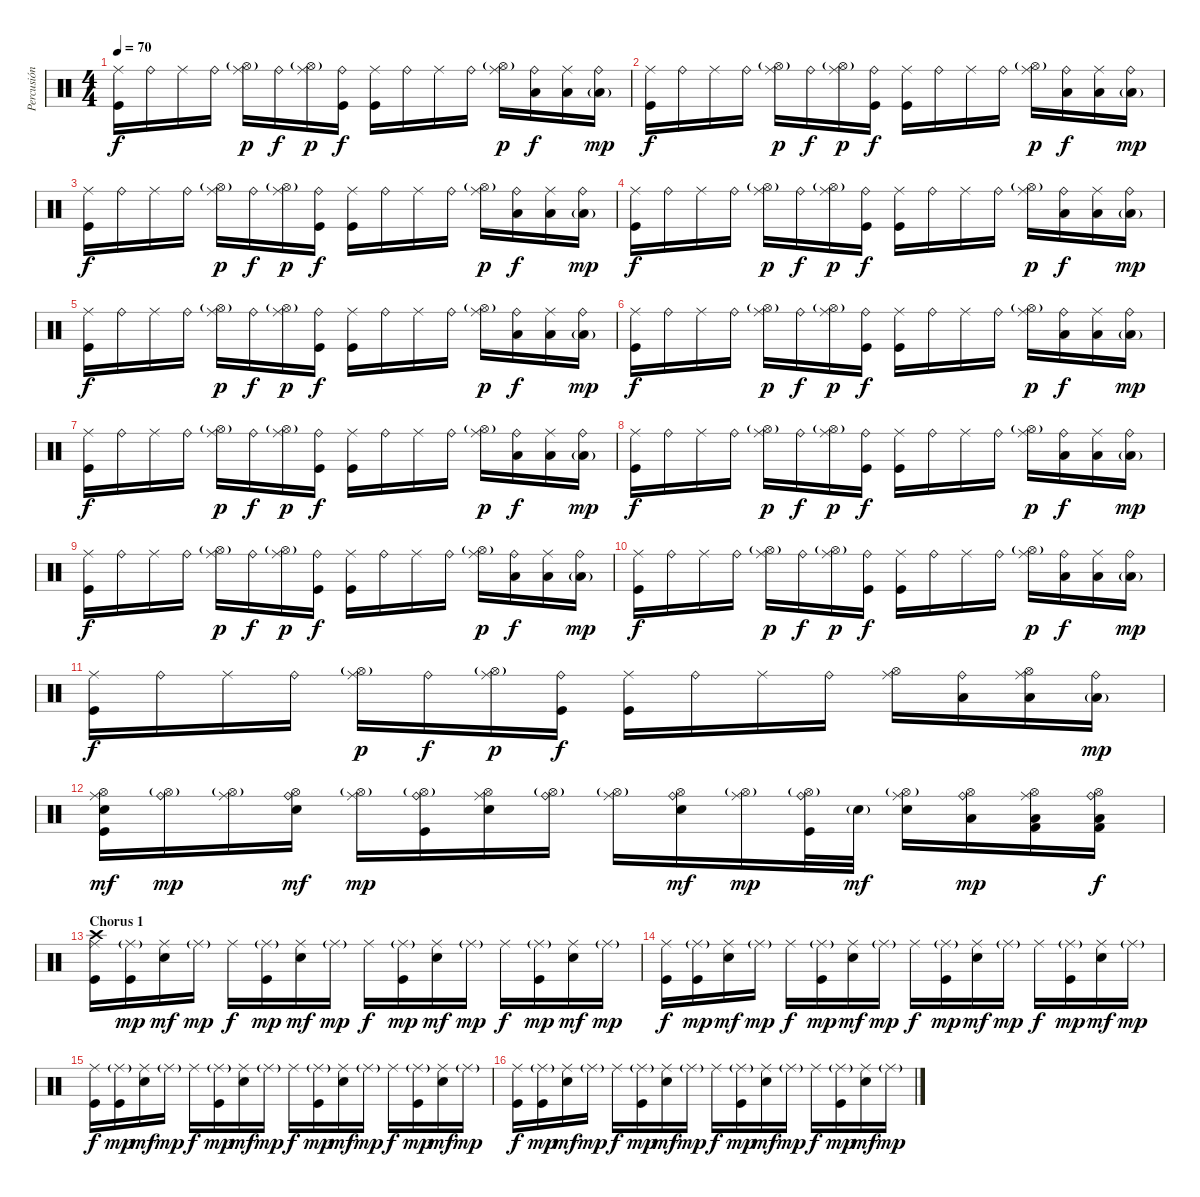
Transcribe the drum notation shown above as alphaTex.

\track ("Percusión" "Percusión") {instrument percussion}
\staff {score}
\articulation defaults
\ts (4 4)
\tempo 70
\clef neutral
\ks c
("Ride (middle)" "Kick (hit)").16{dy f} "Ride (bell)".16 "Ride (middle)".16 "Ride (bell)".16 ("Ride (middle)" "Hi-Hat (open)"{g}).16{dy p} "Ride (bell)".16{dy f} ("Ride (middle)" "Hi-Hat (open)"{g}).16{dy p} ("Ride (bell)" "Kick (hit)").16{dy f} ("Ride (middle)" "Kick (hit)").16 "Ride (bell)".16 "Ride (middle)".16 "Ride (bell)".16 ("Ride (middle)" "Hi-Hat (open)"{g}).16{dy p} ("Ride (bell)" "Low Tom (hit)").16{dy f} ("Ride (middle)" "Low Tom (hit)").16 ("Ride (bell)" "Low Floor Tom (hit)"{g}).16{dy mp} |
("Ride (middle)" "Kick (hit)").16{dy f} "Ride (bell)".16 "Ride (middle)".16 "Ride (bell)".16 ("Ride (middle)" "Hi-Hat (open)"{g}).16{dy p} "Ride (bell)".16{dy f} ("Ride (middle)" "Hi-Hat (open)"{g}).16{dy p} ("Ride (bell)" "Kick (hit)").16{dy f} ("Ride (middle)" "Kick (hit)").16 "Ride (bell)".16 "Ride (middle)".16 "Ride (bell)".16 ("Ride (middle)" "Hi-Hat (open)"{g}).16{dy p} ("Ride (bell)" "Low Tom (hit)").16{dy f} ("Ride (middle)" "Low Tom (hit)").16 ("Ride (bell)" "Low Floor Tom (hit)"{g}).16{dy mp} |
("Ride (middle)" "Kick (hit)").16{dy f} "Ride (bell)".16 "Ride (middle)".16 "Ride (bell)".16 ("Ride (middle)" "Hi-Hat (open)"{g}).16{dy p} "Ride (bell)".16{dy f} ("Ride (middle)" "Hi-Hat (open)"{g}).16{dy p} ("Ride (bell)" "Kick (hit)").16{dy f} ("Ride (middle)" "Kick (hit)").16 "Ride (bell)".16 "Ride (middle)".16 "Ride (bell)".16 ("Ride (middle)" "Hi-Hat (open)"{g}).16{dy p} ("Ride (bell)" "Low Tom (hit)").16{dy f} ("Ride (middle)" "Low Tom (hit)").16 ("Ride (bell)" "Low Floor Tom (hit)"{g}).16{dy mp} |
("Ride (middle)" "Kick (hit)").16{dy f} "Ride (bell)".16 "Ride (middle)".16 "Ride (bell)".16 ("Ride (middle)" "Hi-Hat (open)"{g}).16{dy p} "Ride (bell)".16{dy f} ("Ride (middle)" "Hi-Hat (open)"{g}).16{dy p} ("Ride (bell)" "Kick (hit)").16{dy f} ("Ride (middle)" "Kick (hit)").16 "Ride (bell)".16 "Ride (middle)".16 "Ride (bell)".16 ("Ride (middle)" "Hi-Hat (open)"{g}).16{dy p} ("Ride (bell)" "Low Tom (hit)").16{dy f} ("Ride (middle)" "Low Tom (hit)").16 ("Ride (bell)" "Low Floor Tom (hit)"{g}).16{dy mp} |
("Ride (middle)" "Kick (hit)").16{dy f} "Ride (bell)".16 "Ride (middle)".16 "Ride (bell)".16 ("Ride (middle)" "Hi-Hat (open)"{g}).16{dy p} "Ride (bell)".16{dy f} ("Ride (middle)" "Hi-Hat (open)"{g}).16{dy p} ("Ride (bell)" "Kick (hit)").16{dy f} ("Ride (middle)" "Kick (hit)").16 "Ride (bell)".16 "Ride (middle)".16 "Ride (bell)".16 ("Ride (middle)" "Hi-Hat (open)"{g}).16{dy p} ("Ride (bell)" "Low Tom (hit)").16{dy f} ("Ride (middle)" "Low Tom (hit)").16 ("Ride (bell)" "Low Floor Tom (hit)"{g}).16{dy mp} |
("Ride (middle)" "Kick (hit)").16{dy f} "Ride (bell)".16 "Ride (middle)".16 "Ride (bell)".16 ("Ride (middle)" "Hi-Hat (open)"{g}).16{dy p} "Ride (bell)".16{dy f} ("Ride (middle)" "Hi-Hat (open)"{g}).16{dy p} ("Ride (bell)" "Kick (hit)").16{dy f} ("Ride (middle)" "Kick (hit)").16 "Ride (bell)".16 "Ride (middle)".16 "Ride (bell)".16 ("Ride (middle)" "Hi-Hat (open)"{g}).16{dy p} ("Ride (bell)" "Low Tom (hit)").16{dy f} ("Ride (middle)" "Low Tom (hit)").16 ("Ride (bell)" "Low Floor Tom (hit)"{g}).16{dy mp} |
("Ride (middle)" "Kick (hit)").16{dy f} "Ride (bell)".16 "Ride (middle)".16 "Ride (bell)".16 ("Ride (middle)" "Hi-Hat (open)"{g}).16{dy p} "Ride (bell)".16{dy f} ("Ride (middle)" "Hi-Hat (open)"{g}).16{dy p} ("Ride (bell)" "Kick (hit)").16{dy f} ("Ride (middle)" "Kick (hit)").16 "Ride (bell)".16 "Ride (middle)".16 "Ride (bell)".16 ("Ride (middle)" "Hi-Hat (open)"{g}).16{dy p} ("Ride (bell)" "Low Tom (hit)").16{dy f} ("Ride (middle)" "Low Tom (hit)").16 ("Ride (bell)" "Low Floor Tom (hit)"{g}).16{dy mp} |
("Ride (middle)" "Kick (hit)").16{dy f} "Ride (bell)".16 "Ride (middle)".16 "Ride (bell)".16 ("Ride (middle)" "Hi-Hat (open)"{g}).16{dy p} "Ride (bell)".16{dy f} ("Ride (middle)" "Hi-Hat (open)"{g}).16{dy p} ("Ride (bell)" "Kick (hit)").16{dy f} ("Ride (middle)" "Kick (hit)").16 "Ride (bell)".16 "Ride (middle)".16 "Ride (bell)".16 ("Ride (middle)" "Hi-Hat (open)"{g}).16{dy p} ("Ride (bell)" "Low Tom (hit)").16{dy f} ("Ride (middle)" "Low Tom (hit)").16 ("Ride (bell)" "Low Floor Tom (hit)"{g}).16{dy mp} |
("Ride (middle)" "Kick (hit)").16{dy f} "Ride (bell)".16 "Ride (middle)".16 "Ride (bell)".16 ("Ride (middle)" "Hi-Hat (open)"{g}).16{dy p} "Ride (bell)".16{dy f} ("Ride (middle)" "Hi-Hat (open)"{g}).16{dy p} ("Ride (bell)" "Kick (hit)").16{dy f} ("Ride (middle)" "Kick (hit)").16 "Ride (bell)".16 "Ride (middle)".16 "Ride (bell)".16 ("Ride (middle)" "Hi-Hat (open)"{g}).16{dy p} ("Ride (bell)" "Low Tom (hit)").16{dy f} ("Ride (middle)" "Low Tom (hit)").16 ("Ride (bell)" "Low Floor Tom (hit)"{g}).16{dy mp} |
("Ride (middle)" "Kick (hit)").16{dy f} "Ride (bell)".16 "Ride (middle)".16 "Ride (bell)".16 ("Ride (middle)" "Hi-Hat (open)"{g}).16{dy p} "Ride (bell)".16{dy f} ("Ride (middle)" "Hi-Hat (open)"{g}).16{dy p} ("Ride (bell)" "Kick (hit)").16{dy f} ("Ride (middle)" "Kick (hit)").16 "Ride (bell)".16 "Ride (middle)".16 "Ride (bell)".16 ("Ride (middle)" "Hi-Hat (open)"{g}).16{dy p} ("Ride (bell)" "Low Tom (hit)").16{dy f} ("Ride (middle)" "Low Tom (hit)").16 ("Ride (bell)" "Low Floor Tom (hit)"{g}).16{dy mp} |
("Ride (middle)" "Kick (hit)").16{dy f} "Ride (bell)".16 "Ride (middle)".16 "Ride (bell)".16 ("Ride (middle)" "Hi-Hat (open)"{g}).16{dy p} "Ride (bell)".16{dy f} ("Ride (middle)" "Hi-Hat (open)"{g}).16{dy p} ("Ride (bell)" "Kick (hit)").16{dy f} ("Ride (middle)" "Kick (hit)").16 "Ride (bell)".16 "Ride (middle)".16 "Ride (bell)".16 ("Ride (middle)" "Hi-Hat (open)").16 ("Ride (bell)" "Low Tom (hit)").16 ("Ride (middle)" "Hi-Hat (open)" "Low Tom (hit)").16 ("Ride (bell)" "Low Floor Tom (hit)"{g}).16{dy mp} |
("Ride (middle)" "Hi-Hat (open)" "Kick (hit)" "Snare (hit) 2").16{dy mf} ("Ride (bell)" "Hi-Hat (open)"{g}).16{dy mp} ("Ride (middle)" "Hi-Hat (open)"{g}).16 ("Ride (bell)" "Hi-Hat (open)" "Snare (hit) 2").16{dy mf} ("Ride (middle)" "Hi-Hat (open)"{g}).16{dy mp} ("Ride (bell)" "Hi-Hat (open)"{g} "Kick (hit)").16 ("Ride (middle)" "Hi-Hat (open)" "Snare (hit) 2").16 ("Ride (bell)" "Hi-Hat (open)"{g}).16 ("Ride (middle)" "Hi-Hat (open)"{g}).16 ("Ride (bell)" "Hi-Hat (open)" "Snare (hit) 2").16{dy mf} ("Ride (middle)" "Hi-Hat (open)"{g}).16{dy mp} ("Ride (bell)" "Hi-Hat (open)"{g} "Kick (hit)").32 "Snare (hit) 2"{g}.32{dy mf} ("Ride (middle)" "Hi-Hat (open)"{g} "Snare (hit) 2").16 ("Ride (bell)" "Hi-Hat (open)" "Low Tom (hit)").16{dy mp} ("Ride (middle)" "Hi-Hat (open)" "Low Tom (hit)" "Kick (hit) 2").16 ("Ride (bell)" "Hi-Hat (open)" "Low Tom (hit)" "Kick (hit) 2").16{dy f} |
\section ("" "Chorus 1")
("Ride (middle)" "Kick (hit)" "Crash high (hit)").16 ("Ride (middle)"{g} "Kick (hit)").16{dy mp} ("Ride (middle)" "Snare (hit) 2").16{dy mf} "Ride (middle)"{g}.16{dy mp} "Ride (middle)".16{dy f} ("Ride (middle)"{g} "Kick (hit)").16{dy mp} ("Ride (middle)" "Snare (hit) 2").16{dy mf} "Ride (middle)"{g}.16{dy mp} "Ride (middle)".16{dy f} ("Ride (middle)"{g} "Kick (hit)").16{dy mp} ("Ride (middle)" "Snare (hit) 2").16{dy mf} "Ride (middle)"{g}.16{dy mp} "Ride (middle)".16{dy f} ("Ride (middle)"{g} "Kick (hit)").16{dy mp} ("Ride (middle)" "Snare (hit) 2").16{dy mf} "Ride (middle)"{g}.16{dy mp} |
("Ride (middle)" "Kick (hit)").16{dy f} ("Ride (middle)"{g} "Kick (hit)").16{dy mp} ("Ride (middle)" "Snare (hit) 2").16{dy mf} "Ride (middle)"{g}.16{dy mp} "Ride (middle)".16{dy f} ("Ride (middle)"{g} "Kick (hit)").16{dy mp} ("Ride (middle)" "Snare (hit) 2").16{dy mf} "Ride (middle)"{g}.16{dy mp} "Ride (middle)".16{dy f} ("Ride (middle)"{g} "Kick (hit)").16{dy mp} ("Ride (middle)" "Snare (hit) 2").16{dy mf} "Ride (middle)"{g}.16{dy mp} "Ride (middle)".16{dy f} ("Ride (middle)"{g} "Kick (hit)").16{dy mp} ("Ride (middle)" "Snare (hit) 2").16{dy mf} "Ride (middle)"{g}.16{dy mp} |
("Ride (middle)" "Kick (hit)").16{dy f} ("Ride (middle)"{g} "Kick (hit)").16{dy mp} ("Ride (middle)" "Snare (hit) 2").16{dy mf} "Ride (middle)"{g}.16{dy mp} "Ride (middle)".16{dy f} ("Ride (middle)"{g} "Kick (hit)").16{dy mp} ("Ride (middle)" "Snare (hit) 2").16{dy mf} "Ride (middle)"{g}.16{dy mp} "Ride (middle)".16{dy f} ("Ride (middle)"{g} "Kick (hit)").16{dy mp} ("Ride (middle)" "Snare (hit) 2").16{dy mf} "Ride (middle)"{g}.16{dy mp} "Ride (middle)".16{dy f} ("Ride (middle)"{g} "Kick (hit)").16{dy mp} ("Ride (middle)" "Snare (hit) 2").16{dy mf} "Ride (middle)"{g}.16{dy mp} |
("Ride (middle)" "Kick (hit)").16{dy f} ("Ride (middle)"{g} "Kick (hit)").16{dy mp} ("Ride (middle)" "Snare (hit) 2").16{dy mf} "Ride (middle)"{g}.16{dy mp} "Ride (middle)".16{dy f} ("Ride (middle)"{g} "Kick (hit)").16{dy mp} ("Ride (middle)" "Snare (hit) 2").16{dy mf} "Ride (middle)"{g}.16{dy mp} "Ride (middle)".16{dy f} ("Ride (middle)"{g} "Kick (hit)").16{dy mp} ("Ride (middle)" "Snare (hit) 2").16{dy mf} "Ride (middle)"{g}.16{dy mp} "Ride (middle)".16{dy f} ("Ride (middle)"{g} "Kick (hit)").16{dy mp} ("Ride (middle)" "Snare (hit) 2").16{dy mf} "Ride (middle)"{g}.16{dy mp}
